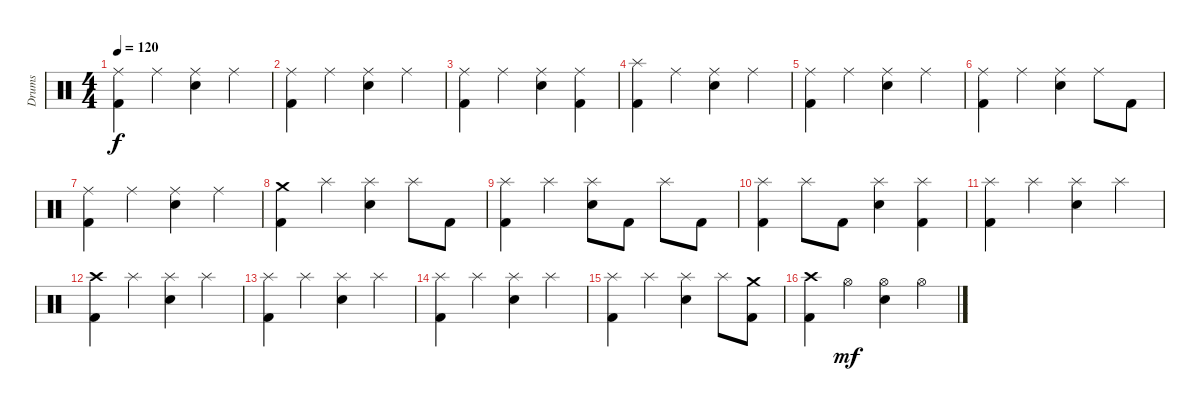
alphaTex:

\track ("Drums" "Drums") {instrument percussion}
\staff {score}
\articulation defaults
\ts (4 4)
\tempo 120
\clef neutral
\ks c
("Kick (hit) 2" "Ride (middle)").4{dy f} "Ride (middle)".4 ("Electric Snare (hit)" "Ride (middle)").4 "Ride (middle)".4 |
("Kick (hit) 2" "Ride (middle)").4 "Ride (middle)".4 ("Electric Snare (hit)" "Ride (middle)").4 "Ride (middle)".4 |
("Kick (hit) 2" "Ride (middle)").4 "Ride (middle)".4 ("Electric Snare (hit)" "Ride (middle)").4 ("Kick (hit) 2" "Ride (middle)").4 |
("Kick (hit) 2" "Splash (hit)").4 "Ride (middle)".4 ("Electric Snare (hit)" "Ride (middle)").4 "Ride (middle)".4 |
("Kick (hit) 2" "Ride (middle)").4 "Ride (middle)".4 ("Electric Snare (hit)" "Ride (middle)").4 "Ride (middle)".4 |
("Kick (hit) 2" "Ride (middle)").4 "Ride (middle)".4 ("Electric Snare (hit)" "Ride (middle)").4 "Ride (middle)".8 "Kick (hit) 2".8 |
("Kick (hit) 2" "Ride (middle)").4 "Ride (middle)".4 ("Electric Snare (hit)" "Ride (middle)").4 "Ride (middle)".4 |
("Kick (hit) 2" "Crash medium (hit)").4 "Splash (hit)".4 ("Electric Snare (hit)" "Splash (hit)").4 "Splash (hit)".8 "Kick (hit) 2".8 |
("Kick (hit) 2" "Splash (hit)").4 "Splash (hit)".4 ("Electric Snare (hit)" "Splash (hit)").8 "Kick (hit) 2".8 "Splash (hit)".8 "Kick (hit) 2".8 |
("Kick (hit) 2" "Splash (hit)").4 "Splash (hit)".8 "Kick (hit) 2".8 ("Electric Snare (hit)" "Splash (hit)").4 ("Kick (hit) 2" "Splash (hit)").4 |
("Kick (hit) 2" "Splash (hit)").4 "Splash (hit)".4 ("Electric Snare (hit)" "Splash (hit)").4 "Splash (hit)".4 |
("Kick (hit) 2" "Crash high (hit)").4 "Splash (hit)".4 ("Electric Snare (hit)" "Splash (hit)").4 "Splash (hit)".4 |
("Kick (hit) 2" "Splash (hit)").4 "Splash (hit)".4 ("Electric Snare (hit)" "Splash (hit)").4 "Splash (hit)".4 |
("Kick (hit) 2" "Splash (hit)").4 "Splash (hit)".4 ("Electric Snare (hit)" "Splash (hit)").4 "Splash (hit)".4 |
("Kick (hit) 2" "Splash (hit)").4 "Splash (hit)".4 ("Electric Snare (hit)" "Splash (hit)").4 "Splash (hit)".8 ("Kick (hit) 2" "Crash medium (hit)").8 |
("Kick (hit) 2" "Crash high (hit)").4 "Hi-Hat (open)".4{dy mf} ("Electric Snare (hit)" "Hi-Hat (open)").4 "Hi-Hat (open)".4
